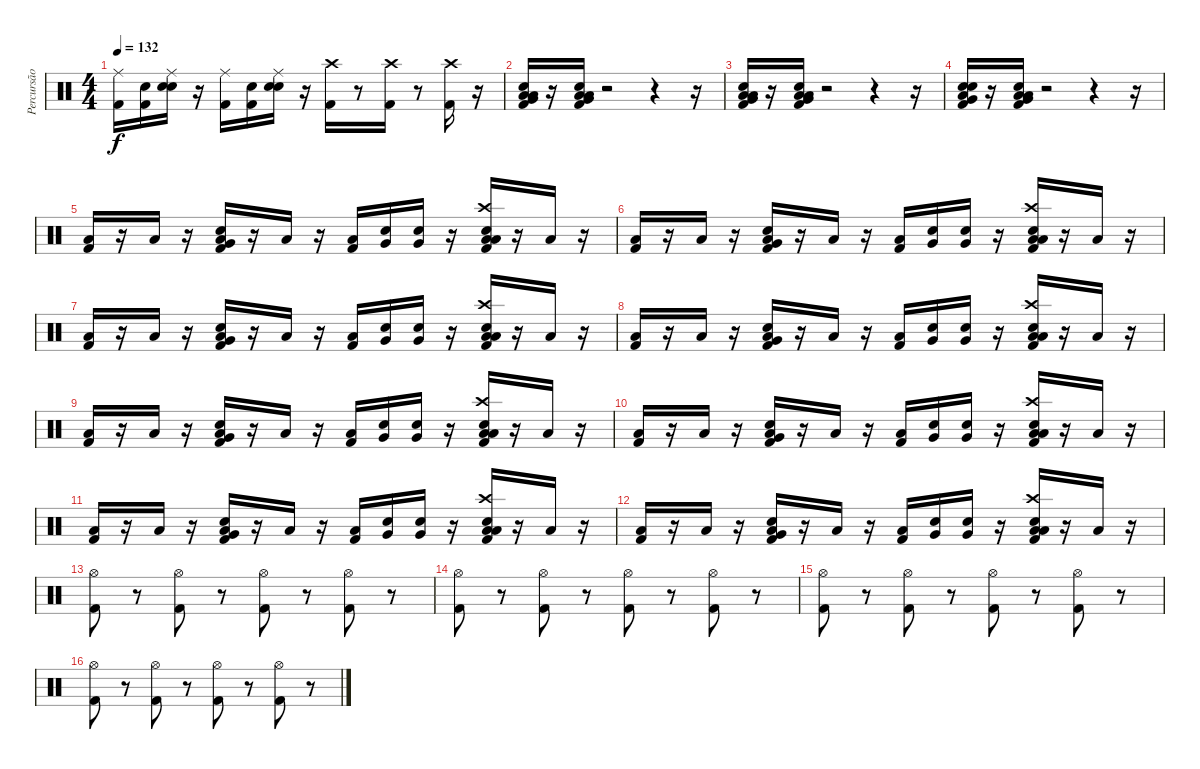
\track ("Percursão" "Percursão") {instrument percussion}
\staff {score}
\articulation defaults
\ts (4 4)
\tempo 132
\clef neutral
\ks c
("Ride (middle)" "Kick (hit) 2").16{dy f} ("Snare (hit)" "Kick (hit) 2").16 ("Snare (hit)" "Ride (middle)" "Electric Snare (hit)").16 r.16 ("Ride (middle)" "Kick (hit) 2").16 ("Snare (hit)" "Kick (hit) 2").16 ("Snare (hit)" "Ride (middle)" "Electric Snare (hit)").16 r.16 ("Crash high (hit)" "Kick (hit) 2").16 r.8 ("Crash high (hit)" "Kick (hit) 2").16 r.8 ("Crash high (hit)" "Kick (hit) 2").16 r.16 |
("Very Low Tom (hit)" "Low Floor Tom (hit)" "Low Tom (hit)" "Kick (hit) 2" "Snare (hit) 2").16 r.16 ("Kick (hit) 2" "Very Low Tom (hit)" "Low Floor Tom (hit)" "Low Tom (hit)" "Snare (hit) 2").16 r.2 r.4 r.16 |
("Very Low Tom (hit)" "Low Tom (hit)" "Low Floor Tom (hit)" "Kick (hit) 2" "Snare (hit) 2").16 r.16 ("Kick (hit) 2" "Very Low Tom (hit)" "Low Floor Tom (hit)" "Low Tom (hit)" "Snare (hit) 2").16 r.2 r.4 r.16 |
("Electric Snare (hit)" "Very Low Tom (hit)" "Kick (hit) 2" "Low Floor Tom (hit)" "Snare (hit) 2").16 r.16 ("Low Floor Tom (hit)" "Very Low Tom (hit)" "Kick (hit) 2" "Low Tom (hit)" "Snare (hit) 2").16 r.2 r.4 r.16 |
("Kick (hit) 2" "Low Tom (hit)").16 r.16 "Low Tom (hit)".16 r.16 ("Kick (hit) 2" "Low Tom (hit)" "Very Low Tom (hit)" "Snare (hit) 2").16 r.16 "Low Tom (hit)".16 r.16 ("Kick (hit) 2" "Low Tom (hit)").16 ("Snare (hit)" "Very Low Tom (hit)").16 ("Snare (hit)" "Very Low Tom (hit)").16 r.16 ("Kick (hit) 2" "Snare (hit) 2" "Crash high (hit)" "Low Tom (hit)" "Low Floor Tom (hit)").16 r.16 "Low Tom (hit)".16 r.16 |
("Kick (hit) 2" "Low Tom (hit)").16 r.16 "Low Tom (hit)".16 r.16 ("Kick (hit) 2" "Low Tom (hit)" "Very Low Tom (hit)" "Snare (hit) 2").16 r.16 "Low Tom (hit)".16 r.16 ("Kick (hit) 2" "Low Tom (hit)").16 ("Snare (hit)" "Very Low Tom (hit)").16 ("Snare (hit)" "Very Low Tom (hit)").16 r.16 ("Kick (hit) 2" "Snare (hit) 2" "Crash high (hit)" "Low Tom (hit)" "Low Floor Tom (hit)").16 r.16 "Low Tom (hit)".16 r.16 |
("Kick (hit) 2" "Low Tom (hit)").16 r.16 "Low Tom (hit)".16 r.16 ("Kick (hit) 2" "Low Tom (hit)" "Very Low Tom (hit)" "Snare (hit) 2").16 r.16 "Low Tom (hit)".16 r.16 ("Kick (hit) 2" "Low Tom (hit)").16 ("Snare (hit)" "Very Low Tom (hit)").16 ("Snare (hit)" "Very Low Tom (hit)").16 r.16 ("Kick (hit) 2" "Snare (hit) 2" "Crash high (hit)" "Low Tom (hit)" "Low Floor Tom (hit)").16 r.16 "Low Tom (hit)".16 r.16 |
("Kick (hit) 2" "Low Tom (hit)").16 r.16 "Low Tom (hit)".16 r.16 ("Kick (hit) 2" "Low Tom (hit)" "Very Low Tom (hit)" "Snare (hit) 2").16 r.16 "Low Tom (hit)".16 r.16 ("Kick (hit) 2" "Low Tom (hit)").16 ("Snare (hit)" "Very Low Tom (hit)").16 ("Snare (hit)" "Very Low Tom (hit)").16 r.16 ("Kick (hit) 2" "Snare (hit) 2" "Crash high (hit)" "Low Tom (hit)" "Low Floor Tom (hit)").16 r.16 "Low Tom (hit)".16 r.16 |
("Kick (hit) 2" "Low Tom (hit)").16 r.16 "Low Tom (hit)".16 r.16 ("Kick (hit) 2" "Low Tom (hit)" "Very Low Tom (hit)" "Snare (hit) 2").16 r.16 "Low Tom (hit)".16 r.16 ("Kick (hit) 2" "Low Tom (hit)").16 ("Snare (hit)" "Very Low Tom (hit)").16 ("Snare (hit)" "Very Low Tom (hit)").16 r.16 ("Kick (hit) 2" "Snare (hit) 2" "Crash high (hit)" "Low Tom (hit)" "Low Floor Tom (hit)").16 r.16 "Low Tom (hit)".16 r.16 |
("Kick (hit) 2" "Low Tom (hit)").16 r.16 "Low Tom (hit)".16 r.16 ("Kick (hit) 2" "Low Tom (hit)" "Very Low Tom (hit)" "Snare (hit) 2").16 r.16 "Low Tom (hit)".16 r.16 ("Kick (hit) 2" "Low Tom (hit)").16 ("Snare (hit)" "Very Low Tom (hit)").16 ("Snare (hit)" "Very Low Tom (hit)").16 r.16 ("Kick (hit) 2" "Snare (hit) 2" "Crash high (hit)" "Low Tom (hit)" "Low Floor Tom (hit)").16 r.16 "Low Tom (hit)".16 r.16 |
("Kick (hit) 2" "Low Tom (hit)").16 r.16 "Low Tom (hit)".16 r.16 ("Kick (hit) 2" "Low Tom (hit)" "Very Low Tom (hit)" "Snare (hit) 2").16 r.16 "Low Tom (hit)".16 r.16 ("Kick (hit) 2" "Low Tom (hit)").16 ("Snare (hit)" "Very Low Tom (hit)").16 ("Snare (hit)" "Very Low Tom (hit)").16 r.16 ("Kick (hit) 2" "Snare (hit) 2" "Crash high (hit)" "Low Tom (hit)" "Low Floor Tom (hit)").16 r.16 "Low Tom (hit)".16 r.16 |
("Kick (hit) 2" "Low Tom (hit)").16 r.16 "Low Tom (hit)".16 r.16 ("Kick (hit) 2" "Low Tom (hit)" "Very Low Tom (hit)" "Snare (hit) 2").16 r.16 "Low Tom (hit)".16 r.16 ("Kick (hit) 2" "Low Tom (hit)").16 ("Snare (hit)" "Very Low Tom (hit)").16 ("Snare (hit)" "Very Low Tom (hit)").16 r.16 ("Kick (hit) 2" "Snare (hit) 2" "Crash high (hit)" "Low Tom (hit)" "Low Floor Tom (hit)").16 r.16 "Low Tom (hit)".16 r.16 |
("Kick (hit) 2" "Hi-Hat (open)").8 r.8 ("Kick (hit) 2" "Hi-Hat (open)").8 r.8 ("Kick (hit) 2" "Hi-Hat (open)").8 r.8 ("Kick (hit) 2" "Hi-Hat (open)").8 r.8 |
("Kick (hit) 2" "Hi-Hat (open)").8 r.8 ("Kick (hit) 2" "Hi-Hat (open)").8 r.8 ("Kick (hit) 2" "Hi-Hat (open)").8 r.8 ("Kick (hit) 2" "Hi-Hat (open)").8 r.8 |
("Kick (hit) 2" "Hi-Hat (open)").8 r.8 ("Kick (hit) 2" "Hi-Hat (open)").8 r.8 ("Kick (hit) 2" "Hi-Hat (open)").8 r.8 ("Kick (hit) 2" "Hi-Hat (open)").8 r.8 |
("Kick (hit) 2" "Hi-Hat (open)").8 r.8 ("Kick (hit) 2" "Hi-Hat (open)").8 r.8 ("Kick (hit) 2" "Hi-Hat (open)").8 r.8 ("Kick (hit) 2" "Hi-Hat (open)").8 r.8
